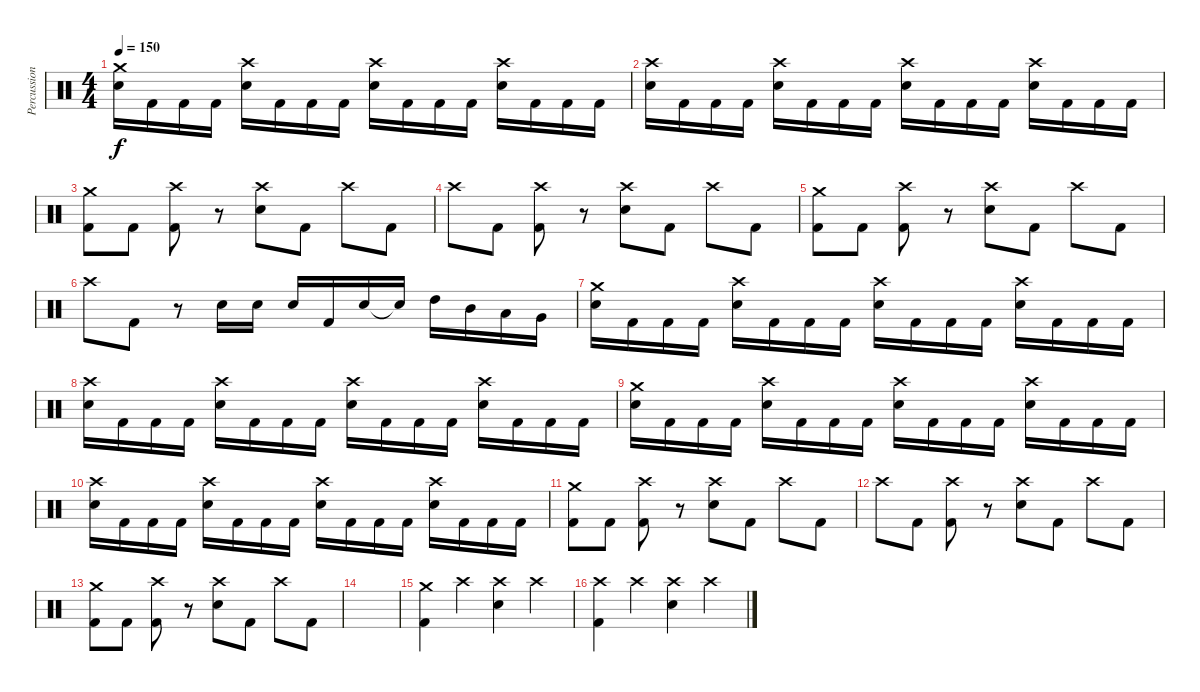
\track ("Percussion" "Percussion") {instrument percussion}
\staff {score}
\articulation defaults
\ts (4 4)
\tempo 150
\clef neutral
\ks c
("Crash medium (hit)" "Electric Snare (hit)").16{dy f} "Kick (hit) 2".16 "Kick (hit) 2".16 "Kick (hit) 2".16 ("Crash high (hit)" "Electric Snare (hit)").16 "Kick (hit) 2".16 "Kick (hit) 2".16 "Kick (hit) 2".16 ("Crash high (hit)" "Electric Snare (hit)").16 "Kick (hit) 2".16 "Kick (hit) 2".16 "Kick (hit) 2".16 ("Crash high (hit)" "Electric Snare (hit)").16 "Kick (hit) 2".16 "Kick (hit) 2".16 "Kick (hit) 2".16 |
("Crash high (hit)" "Electric Snare (hit)").16 "Kick (hit) 2".16 "Kick (hit) 2".16 "Kick (hit) 2".16 ("Crash high (hit)" "Electric Snare (hit)").16 "Kick (hit) 2".16 "Kick (hit) 2".16 "Kick (hit) 2".16 ("Crash high (hit)" "Electric Snare (hit)").16 "Kick (hit) 2".16 "Kick (hit) 2".16 "Kick (hit) 2".16 ("Crash high (hit)" "Electric Snare (hit)").16 "Kick (hit) 2".16 "Kick (hit) 2".16 "Kick (hit) 2".16 |
("Crash medium (hit)" "Kick (hit) 2").8 "Kick (hit) 2".8 ("Crash high (hit)" "Kick (hit) 2").8 r.8 ("Crash high (hit)" "Electric Snare (hit)").8 "Kick (hit) 2".8 "Crash high (hit)".8 "Kick (hit) 2".8 |
"Crash high (hit)".8 "Kick (hit) 2".8 ("Crash high (hit)" "Kick (hit) 2").8 r.8 ("Crash high (hit)" "Electric Snare (hit)").8 "Kick (hit) 2".8 "Crash high (hit)".8 "Kick (hit) 2".8 |
("Crash medium (hit)" "Kick (hit) 2").8 "Kick (hit) 2".8 ("Crash high (hit)" "Kick (hit) 2").8 r.8 ("Crash high (hit)" "Electric Snare (hit)").8 "Kick (hit) 2".8 "Crash high (hit)".8 "Kick (hit) 2".8 |
"Crash high (hit)".8 "Kick (hit) 2".8 r.8 "Electric Snare (hit)".16 "Electric Snare (hit)".16 "Electric Snare (hit)".16 "Kick (hit) 2".16 "Electric Snare (hit)".16 "Snare (hit)"{t}.16 "High Tom (hit)".16 "Mid Tom (hit)".16 "Low Tom (hit)".16 "Very Low Tom (hit)".16 |
("Crash medium (hit)" "Electric Snare (hit)").16 "Kick (hit) 2".16 "Kick (hit) 2".16 "Kick (hit) 2".16 ("Crash high (hit)" "Electric Snare (hit)").16 "Kick (hit) 2".16 "Kick (hit) 2".16 "Kick (hit) 2".16 ("Crash high (hit)" "Electric Snare (hit)").16 "Kick (hit) 2".16 "Kick (hit) 2".16 "Kick (hit) 2".16 ("Crash high (hit)" "Electric Snare (hit)").16 "Kick (hit) 2".16 "Kick (hit) 2".16 "Kick (hit) 2".16 |
("Crash high (hit)" "Electric Snare (hit)").16 "Kick (hit) 2".16 "Kick (hit) 2".16 "Kick (hit) 2".16 ("Crash high (hit)" "Electric Snare (hit)").16 "Kick (hit) 2".16 "Kick (hit) 2".16 "Kick (hit) 2".16 ("Crash high (hit)" "Electric Snare (hit)").16 "Kick (hit) 2".16 "Kick (hit) 2".16 "Kick (hit) 2".16 ("Crash high (hit)" "Electric Snare (hit)").16 "Kick (hit) 2".16 "Kick (hit) 2".16 "Kick (hit) 2".16 |
("Crash medium (hit)" "Electric Snare (hit)").16 "Kick (hit) 2".16 "Kick (hit) 2".16 "Kick (hit) 2".16 ("Crash high (hit)" "Electric Snare (hit)").16 "Kick (hit) 2".16 "Kick (hit) 2".16 "Kick (hit) 2".16 ("Crash high (hit)" "Electric Snare (hit)").16 "Kick (hit) 2".16 "Kick (hit) 2".16 "Kick (hit) 2".16 ("Crash high (hit)" "Electric Snare (hit)").16 "Kick (hit) 2".16 "Kick (hit) 2".16 "Kick (hit) 2".16 |
("Crash high (hit)" "Electric Snare (hit)").16 "Kick (hit) 2".16 "Kick (hit) 2".16 "Kick (hit) 2".16 ("Crash high (hit)" "Electric Snare (hit)").16 "Kick (hit) 2".16 "Kick (hit) 2".16 "Kick (hit) 2".16 ("Crash high (hit)" "Electric Snare (hit)").16 "Kick (hit) 2".16 "Kick (hit) 2".16 "Kick (hit) 2".16 ("Crash high (hit)" "Electric Snare (hit)").16 "Kick (hit) 2".16 "Kick (hit) 2".16 "Kick (hit) 2".16 |
("Crash medium (hit)" "Kick (hit) 2").8 "Kick (hit) 2".8 ("Crash high (hit)" "Kick (hit) 2").8 r.8 ("Crash high (hit)" "Electric Snare (hit)").8 "Kick (hit) 2".8 "Crash high (hit)".8 "Kick (hit) 2".8 |
"Crash high (hit)".8 "Kick (hit) 2".8 ("Crash high (hit)" "Kick (hit) 2").8 r.8 ("Crash high (hit)" "Electric Snare (hit)").8 "Kick (hit) 2".8 "Crash high (hit)".8 "Kick (hit) 2".8 |
("Crash medium (hit)" "Kick (hit) 2").8 "Kick (hit) 2".8 ("Crash high (hit)" "Kick (hit) 2").8 r.8 ("Crash high (hit)" "Electric Snare (hit)").8 "Kick (hit) 2".8 "Crash high (hit)".8 "Kick (hit) 2".8 |
|
("Crash medium (hit)" "Kick (hit) 2").4 "Crash high (hit)".4 ("Crash high (hit)" "Electric Snare (hit)").4 "Crash high (hit)".4 |
("Crash high (hit)" "Kick (hit) 2").4 "Crash high (hit)".4 ("Crash high (hit)" "Electric Snare (hit)").4 "Crash high (hit)".4
